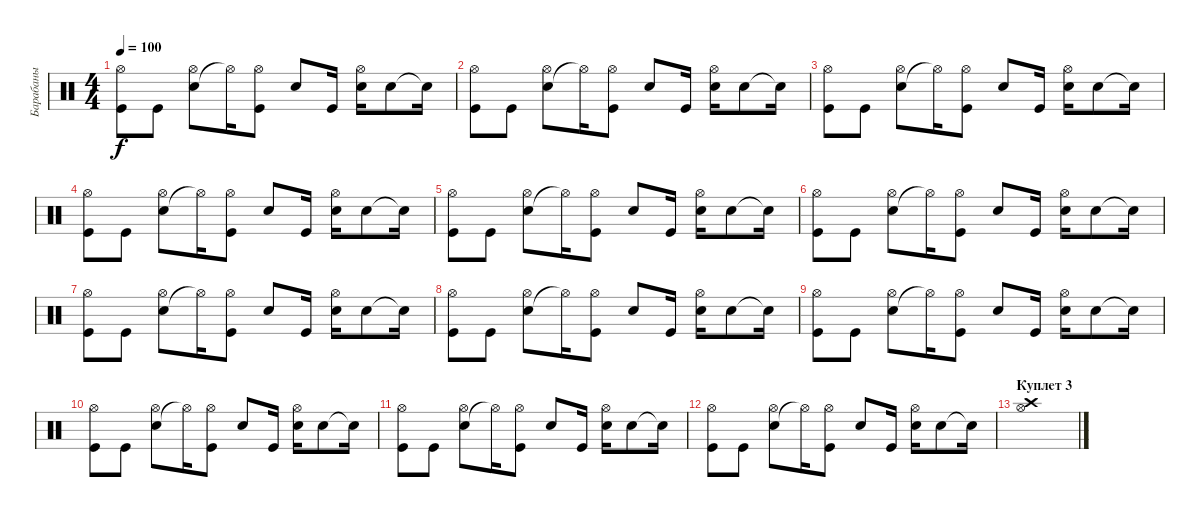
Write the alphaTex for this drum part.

\track ("Барабаны" "Барабаны") {instrument percussion}
\staff {score}
\articulation defaults
\ts (4 4)
\tempo 100
\clef neutral
\ks c
("Kick (hit)" "Hi-Hat (open)").8{dy f} "Kick (hit)".8 ("Snare (hit) 2" "Hi-Hat (open)").8 "Hi-Hat (open)"{t}.16 ("Kick (hit)" "Hi-Hat (open)").8 "Snare (hit) 2".8 "Kick (hit)".16 ("Snare (hit) 2" "Hi-Hat (open)").16 "Snare (hit) 2".8 "Snare (hit) 2"{t}.16 |
("Kick (hit)" "Hi-Hat (open)").8 "Kick (hit)".8 ("Snare (hit) 2" "Hi-Hat (open)").8 "Hi-Hat (open)"{t}.16 ("Kick (hit)" "Hi-Hat (open)").8 "Snare (hit) 2".8 "Kick (hit)".16 ("Snare (hit) 2" "Hi-Hat (open)").16 "Snare (hit) 2".8 "Snare (hit) 2"{t}.16 |
("Kick (hit)" "Hi-Hat (open)").8 "Kick (hit)".8 ("Snare (hit) 2" "Hi-Hat (open)").8 "Hi-Hat (open)"{t}.16 ("Kick (hit)" "Hi-Hat (open)").8 "Snare (hit) 2".8 "Kick (hit)".16 ("Snare (hit) 2" "Hi-Hat (open)").16 "Snare (hit) 2".8 "Snare (hit) 2"{t}.16 |
("Kick (hit)" "Hi-Hat (open)").8 "Kick (hit)".8 ("Snare (hit) 2" "Hi-Hat (open)").8 "Hi-Hat (open)"{t}.16 ("Kick (hit)" "Hi-Hat (open)").8 "Snare (hit) 2".8 "Kick (hit)".16 ("Snare (hit) 2" "Hi-Hat (open)").16 "Snare (hit) 2".8 "Snare (hit) 2"{t}.16 |
("Kick (hit)" "Hi-Hat (open)").8 "Kick (hit)".8 ("Snare (hit) 2" "Hi-Hat (open)").8 "Hi-Hat (open)"{t}.16 ("Kick (hit)" "Hi-Hat (open)").8 "Snare (hit) 2".8 "Kick (hit)".16 ("Snare (hit) 2" "Hi-Hat (open)").16 "Snare (hit) 2".8 "Snare (hit) 2"{t}.16 |
("Kick (hit)" "Hi-Hat (open)").8 "Kick (hit)".8 ("Snare (hit) 2" "Hi-Hat (open)").8 "Hi-Hat (open)"{t}.16 ("Kick (hit)" "Hi-Hat (open)").8 "Snare (hit) 2".8 "Kick (hit)".16 ("Snare (hit) 2" "Hi-Hat (open)").16 "Snare (hit) 2".8 "Snare (hit) 2"{t}.16 |
("Kick (hit)" "Hi-Hat (open)").8 "Kick (hit)".8 ("Snare (hit) 2" "Hi-Hat (open)").8 "Hi-Hat (open)"{t}.16 ("Kick (hit)" "Hi-Hat (open)").8 "Snare (hit) 2".8 "Kick (hit)".16 ("Snare (hit) 2" "Hi-Hat (open)").16 "Snare (hit) 2".8 "Snare (hit) 2"{t}.16 |
("Kick (hit)" "Hi-Hat (open)").8 "Kick (hit)".8 ("Snare (hit) 2" "Hi-Hat (open)").8 "Hi-Hat (open)"{t}.16 ("Kick (hit)" "Hi-Hat (open)").8 "Snare (hit) 2".8 "Kick (hit)".16 ("Snare (hit) 2" "Hi-Hat (open)").16 "Snare (hit) 2".8 "Snare (hit) 2"{t}.16 |
("Kick (hit)" "Hi-Hat (open)").8 "Kick (hit)".8 ("Snare (hit) 2" "Hi-Hat (open)").8 "Hi-Hat (open)"{t}.16 ("Kick (hit)" "Hi-Hat (open)").8 "Snare (hit) 2".8 "Kick (hit)".16 ("Snare (hit) 2" "Hi-Hat (open)").16 "Snare (hit) 2".8 "Snare (hit) 2"{t}.16 |
("Kick (hit)" "Hi-Hat (open)").8 "Kick (hit)".8 ("Snare (hit) 2" "Hi-Hat (open)").8 "Hi-Hat (open)"{t}.16 ("Kick (hit)" "Hi-Hat (open)").8 "Snare (hit) 2".8 "Kick (hit)".16 ("Snare (hit) 2" "Hi-Hat (open)").16 "Snare (hit) 2".8 "Snare (hit) 2"{t}.16 |
("Kick (hit)" "Hi-Hat (open)").8 "Kick (hit)".8 ("Snare (hit) 2" "Hi-Hat (open)").8 "Hi-Hat (open)"{t}.16 ("Kick (hit)" "Hi-Hat (open)").8 "Snare (hit) 2".8 "Kick (hit)".16 ("Snare (hit) 2" "Hi-Hat (open)").16 "Snare (hit) 2".8 "Snare (hit) 2"{t}.16 |
("Kick (hit)" "Hi-Hat (open)").8 "Kick (hit)".8 ("Snare (hit) 2" "Hi-Hat (open)").8 "Hi-Hat (open)"{t}.16 ("Kick (hit)" "Hi-Hat (open)").8 "Snare (hit) 2".8 "Kick (hit)".16 ("Snare (hit) 2" "Hi-Hat (open)").16 "Snare (hit) 2".8 "Snare (hit) 2"{t}.16 |
\section ("" "Куплет 3")
("Crash high (hit)" "Hi-Hat (open)").1
